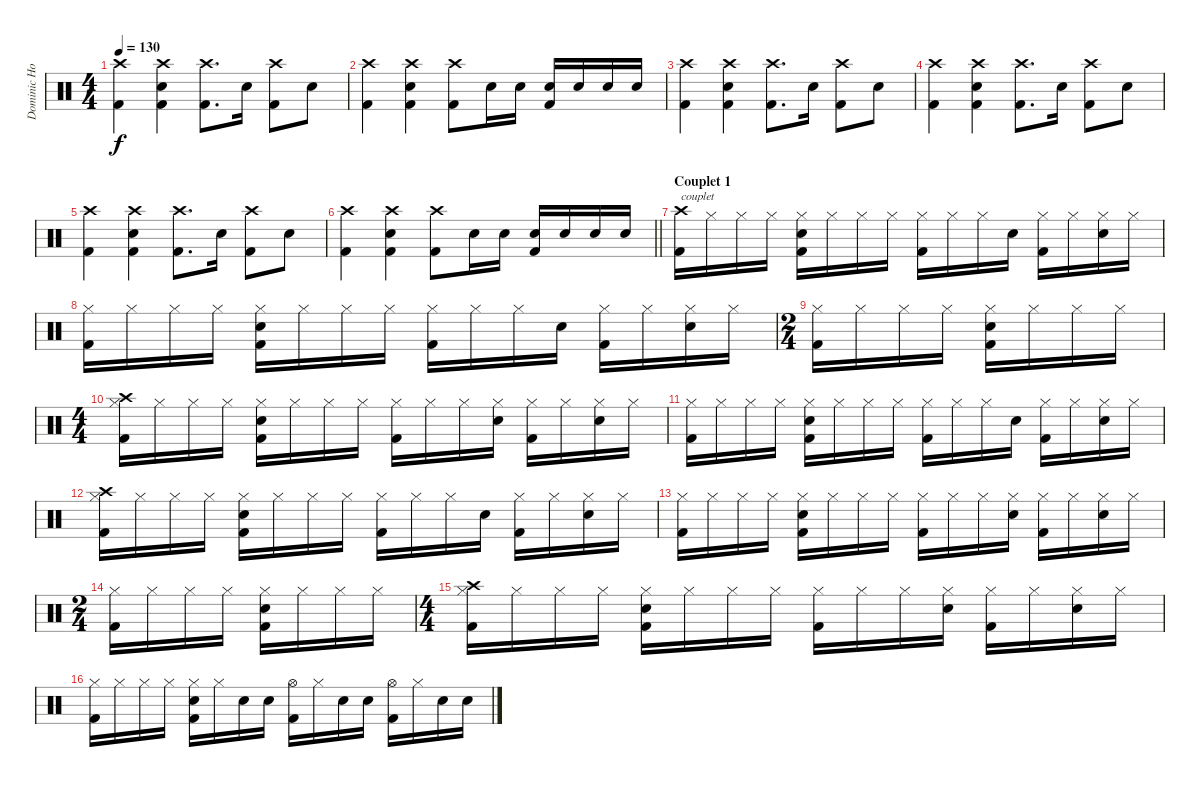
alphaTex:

\track ("Dominic Howard" "Dominic Ho") {instrument percussion}
\staff {score}
\articulation defaults
\ts (4 4)
\tempo 130
\clef neutral
\ks c
("Crash high (hit)" "Kick (hit) 2").4{dy f} ("Kick (hit) 2" "Crash high (hit)" "Electric Snare (hit)").4 ("Crash high (hit)" "Kick (hit) 2").8{d} "Electric Snare (hit)".16 ("Crash high (hit)" "Kick (hit) 2").8 "Electric Snare (hit)".8 |
("Crash high (hit)" "Kick (hit) 2").4 ("Kick (hit) 2" "Crash high (hit)" "Electric Snare (hit)").4 ("Crash high (hit)" "Kick (hit) 2").8 "Electric Snare (hit)".16 "Electric Snare (hit)".16 ("Kick (hit) 2" "Electric Snare (hit)").16 "Electric Snare (hit)".16 "Electric Snare (hit)".16 "Electric Snare (hit)".16 |
("Crash high (hit)" "Kick (hit) 2").4 ("Kick (hit) 2" "Crash high (hit)" "Electric Snare (hit)").4 ("Crash high (hit)" "Kick (hit) 2").8{d} "Electric Snare (hit)".16 ("Crash high (hit)" "Kick (hit) 2").8 "Electric Snare (hit)".8 |
("Crash high (hit)" "Kick (hit) 2").4 ("Kick (hit) 2" "Crash high (hit)" "Electric Snare (hit)").4 ("Crash high (hit)" "Kick (hit) 2").8{d} "Electric Snare (hit)".16 ("Crash high (hit)" "Kick (hit) 2").8 "Electric Snare (hit)".8 |
("Crash high (hit)" "Kick (hit) 2").4 ("Kick (hit) 2" "Crash high (hit)" "Electric Snare (hit)").4 ("Crash high (hit)" "Kick (hit) 2").8{d} "Electric Snare (hit)".16 ("Crash high (hit)" "Kick (hit) 2").8 "Electric Snare (hit)".8 |
\barLineRight lightlight
("Crash high (hit)" "Kick (hit) 2").4 ("Kick (hit) 2" "Crash high (hit)" "Electric Snare (hit)").4 ("Crash high (hit)" "Kick (hit) 2").8 "Electric Snare (hit)".16 "Electric Snare (hit)".16 ("Kick (hit) 2" "Electric Snare (hit)").16 "Electric Snare (hit)".16 "Electric Snare (hit)".16 "Electric Snare (hit)".16 |
\section ("" "Couplet 1")
("Crash high (hit)" "Kick (hit) 2").16{txt "couplet"} "Hi-Hat (closed)".16 "Hi-Hat (closed)".16 "Hi-Hat (closed)".16 ("Hi-Hat (closed)" "Kick (hit) 2" "Electric Snare (hit)").16 "Hi-Hat (closed)".16 "Hi-Hat (closed)".16 "Hi-Hat (closed)".16 ("Hi-Hat (closed)" "Kick (hit) 2").16 "Hi-Hat (closed)".16 "Hi-Hat (closed)".16 "Electric Snare (hit)".16 ("Hi-Hat (closed)" "Kick (hit) 2").16 "Hi-Hat (closed)".16 ("Hi-Hat (closed)" "Electric Snare (hit)").16 "Hi-Hat (closed)".16 |
("Hi-Hat (closed)" "Kick (hit) 2").16 "Hi-Hat (closed)".16 "Hi-Hat (closed)".16 "Hi-Hat (closed)".16 ("Hi-Hat (closed)" "Kick (hit) 2" "Electric Snare (hit)").16 "Hi-Hat (closed)".16 "Hi-Hat (closed)".16 "Hi-Hat (closed)".16 ("Hi-Hat (closed)" "Kick (hit) 2").16 "Hi-Hat (closed)".16 "Hi-Hat (closed)".16 "Electric Snare (hit)".16 ("Hi-Hat (closed)" "Kick (hit) 2").16 "Hi-Hat (closed)".16 ("Hi-Hat (closed)" "Electric Snare (hit)").16 "Hi-Hat (closed)".16 |
\ts (2 4)
("Hi-Hat (closed)" "Kick (hit) 2").16 "Hi-Hat (closed)".16 "Hi-Hat (closed)".16 "Hi-Hat (closed)".16 ("Hi-Hat (closed)" "Kick (hit) 2" "Electric Snare (hit)").16 "Hi-Hat (closed)".16 "Hi-Hat (closed)".16 "Hi-Hat (closed)".16 |
\ts (4 4)
("Crash high (hit)" "Hi-Hat (closed)" "Kick (hit) 2").16 "Hi-Hat (closed)".16 "Hi-Hat (closed)".16 "Hi-Hat (closed)".16 ("Hi-Hat (closed)" "Electric Snare (hit)" "Kick (hit) 2").16 "Hi-Hat (closed)".16 "Hi-Hat (closed)".16 "Hi-Hat (closed)".16 ("Hi-Hat (closed)" "Kick (hit) 2").16 "Hi-Hat (closed)".16 "Hi-Hat (closed)".16 ("Hi-Hat (closed)" "Electric Snare (hit)").16 ("Hi-Hat (closed)" "Kick (hit) 2").16 "Hi-Hat (closed)".16 ("Electric Snare (hit)" "Hi-Hat (closed)").16 "Hi-Hat (closed)".16 |
("Hi-Hat (closed)" "Kick (hit) 2").16 "Hi-Hat (closed)".16 "Hi-Hat (closed)".16 "Hi-Hat (closed)".16 ("Hi-Hat (closed)" "Electric Snare (hit)" "Kick (hit) 2").16 "Hi-Hat (closed)".16 "Hi-Hat (closed)".16 "Hi-Hat (closed)".16 ("Hi-Hat (closed)" "Kick (hit) 2").16 "Hi-Hat (closed)".16 "Hi-Hat (closed)".16 "Electric Snare (hit)".16 ("Hi-Hat (closed)" "Kick (hit) 2").16 "Hi-Hat (closed)".16 ("Hi-Hat (closed)" "Electric Snare (hit)").16 "Hi-Hat (closed)".16 |
("Crash high (hit)" "Hi-Hat (closed)" "Kick (hit) 2").16 "Hi-Hat (closed)".16 "Hi-Hat (closed)".16 "Hi-Hat (closed)".16 ("Hi-Hat (closed)" "Electric Snare (hit)" "Kick (hit) 2").16 "Hi-Hat (closed)".16 "Hi-Hat (closed)".16 "Hi-Hat (closed)".16 ("Hi-Hat (closed)" "Kick (hit) 2").16 "Hi-Hat (closed)".16 "Hi-Hat (closed)".16 "Electric Snare (hit)".16 ("Hi-Hat (closed)" "Kick (hit) 2").16 "Hi-Hat (closed)".16 ("Hi-Hat (closed)" "Electric Snare (hit)").16 "Hi-Hat (closed)".16 |
("Hi-Hat (closed)" "Kick (hit) 2").16 "Hi-Hat (closed)".16 "Hi-Hat (closed)".16 "Hi-Hat (closed)".16 ("Hi-Hat (closed)" "Kick (hit) 2" "Electric Snare (hit)").16 "Hi-Hat (closed)".16 "Hi-Hat (closed)".16 "Hi-Hat (closed)".16 ("Hi-Hat (closed)" "Kick (hit) 2").16 "Hi-Hat (closed)".16 "Hi-Hat (closed)".16 ("Hi-Hat (closed)" "Electric Snare (hit)").16 ("Hi-Hat (closed)" "Kick (hit) 2").16 "Hi-Hat (closed)".16 ("Hi-Hat (closed)" "Electric Snare (hit)").16 "Hi-Hat (closed)".16 |
\ts (2 4)
("Hi-Hat (closed)" "Kick (hit) 2").16 "Hi-Hat (closed)".16 "Hi-Hat (closed)".16 "Hi-Hat (closed)".16 ("Hi-Hat (closed)" "Kick (hit) 2" "Electric Snare (hit)").16 "Hi-Hat (closed)".16 "Hi-Hat (closed)".16 "Hi-Hat (closed)".16 |
\ts (4 4)
("Crash high (hit)" "Hi-Hat (closed)" "Kick (hit) 2").16 "Hi-Hat (closed)".16 "Hi-Hat (closed)".16 "Hi-Hat (closed)".16 ("Hi-Hat (closed)" "Electric Snare (hit)" "Kick (hit) 2").16 "Hi-Hat (closed)".16 "Hi-Hat (closed)".16 "Hi-Hat (closed)".16 ("Hi-Hat (closed)" "Kick (hit) 2").16 "Hi-Hat (closed)".16 "Hi-Hat (closed)".16 ("Hi-Hat (closed)" "Electric Snare (hit)").16 ("Hi-Hat (closed)" "Kick (hit) 2").16 "Hi-Hat (closed)".16 ("Electric Snare (hit)" "Hi-Hat (closed)").16 "Hi-Hat (closed)".16 |
("Hi-Hat (closed)" "Kick (hit) 2").16 "Hi-Hat (closed)".16 "Hi-Hat (closed)".16 "Hi-Hat (closed)".16 ("Hi-Hat (closed)" "Electric Snare (hit)" "Kick (hit) 2").16 "Hi-Hat (closed)".16 "Electric Snare (hit)".16 "Electric Snare (hit)".16 ("Hi-Hat (open)" "Kick (hit) 2").16 "Hi-Hat (closed)".16 "Electric Snare (hit)".16 "Electric Snare (hit)".16 ("Hi-Hat (open)" "Kick (hit) 2").16 "Hi-Hat (closed)".16 "Electric Snare (hit)".16 "Electric Snare (hit)".16
